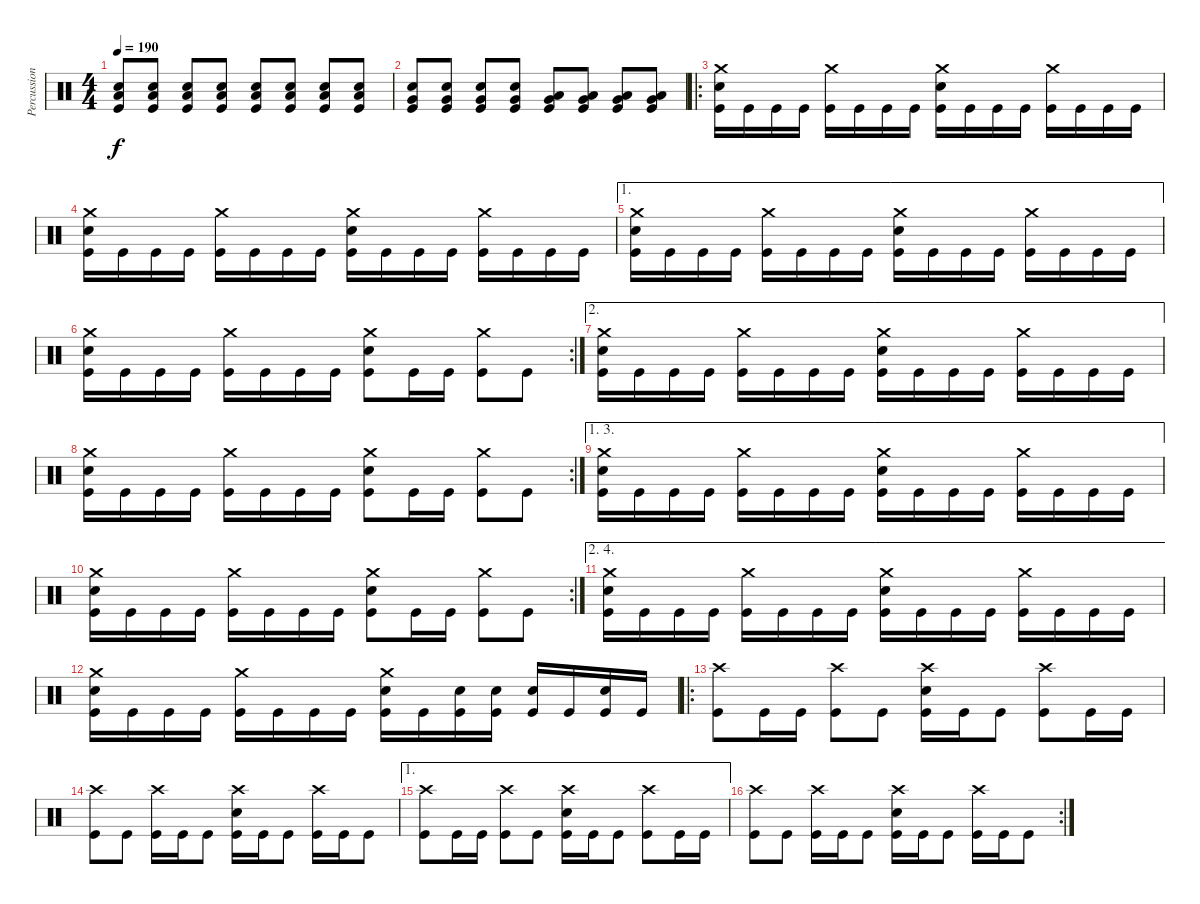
\track ("Percussion" "Percussion") {instrument percussion}
\staff {score}
\articulation defaults
\ts (4 4)
\tempo 190
\clef neutral
\ks c
("Low Tom (hit)" "Electric Snare (hit)" "Kick (hit)").8{dy f} ("Low Tom (hit)" "Electric Snare (hit)" "Kick (hit)").8 ("Low Tom (hit)" "Electric Snare (hit)" "Kick (hit)").8 ("Low Tom (hit)" "Electric Snare (hit)" "Kick (hit)").8 ("Low Tom (hit)" "Electric Snare (hit)" "Kick (hit)").8 ("Low Tom (hit)" "Electric Snare (hit)" "Kick (hit)").8 ("Low Tom (hit)" "Electric Snare (hit)" "Kick (hit)").8 ("Low Tom (hit)" "Electric Snare (hit)" "Kick (hit)").8 |
("Very Low Tom (hit)" "Electric Snare (hit)" "Kick (hit)").8 ("Very Low Tom (hit)" "Electric Snare (hit)" "Kick (hit)").8 ("Very Low Tom (hit)" "Electric Snare (hit)" "Kick (hit)").8 ("Very Low Tom (hit)" "Electric Snare (hit)" "Kick (hit)").8 ("Low Tom (hit)" "Very Low Tom (hit)" "Kick (hit)").8 ("Low Tom (hit)" "Very Low Tom (hit)" "Kick (hit)").8 ("Low Tom (hit)" "Very Low Tom (hit)" "Kick (hit)").8 ("Low Tom (hit)" "Very Low Tom (hit)" "Kick (hit)").8 |
\ro
("Crash medium (hit)" "Electric Snare (hit)" "Kick (hit)").16 "Kick (hit)".16 "Kick (hit)".16 "Kick (hit)".16 ("Crash medium (hit)" "Kick (hit)").16 "Kick (hit)".16 "Kick (hit)".16 "Kick (hit)".16 ("Crash medium (hit)" "Electric Snare (hit)" "Kick (hit)").16 "Kick (hit)".16 "Kick (hit)".16 "Kick (hit)".16 ("Crash medium (hit)" "Kick (hit)").16 "Kick (hit)".16 "Kick (hit)".16 "Kick (hit)".16 |
("Crash medium (hit)" "Electric Snare (hit)" "Kick (hit)").16 "Kick (hit)".16 "Kick (hit)".16 "Kick (hit)".16 ("Crash medium (hit)" "Kick (hit)").16 "Kick (hit)".16 "Kick (hit)".16 "Kick (hit)".16 ("Crash medium (hit)" "Electric Snare (hit)" "Kick (hit)").16 "Kick (hit)".16 "Kick (hit)".16 "Kick (hit)".16 ("Crash medium (hit)" "Kick (hit)").16 "Kick (hit)".16 "Kick (hit)".16 "Kick (hit)".16 |
\ae 1
("Crash medium (hit)" "Electric Snare (hit)" "Kick (hit)").16 "Kick (hit)".16 "Kick (hit)".16 "Kick (hit)".16 ("Crash medium (hit)" "Kick (hit)").16 "Kick (hit)".16 "Kick (hit)".16 "Kick (hit)".16 ("Crash medium (hit)" "Electric Snare (hit)" "Kick (hit)").16 "Kick (hit)".16 "Kick (hit)".16 "Kick (hit)".16 ("Crash medium (hit)" "Kick (hit)").16 "Kick (hit)".16 "Kick (hit)".16 "Kick (hit)".16 |
\rc 2
("Crash medium (hit)" "Electric Snare (hit)" "Kick (hit)").16 "Kick (hit)".16 "Kick (hit)".16 "Kick (hit)".16 ("Crash medium (hit)" "Kick (hit)").16 "Kick (hit)".16 "Kick (hit)".16 "Kick (hit)".16 ("Crash medium (hit)" "Electric Snare (hit)" "Kick (hit)").8 "Kick (hit)".16 "Kick (hit)".16 ("Crash medium (hit)" "Kick (hit)").8 "Kick (hit)".8 |
\ae 2
("Crash medium (hit)" "Electric Snare (hit)" "Kick (hit)").16 "Kick (hit)".16 "Kick (hit)".16 "Kick (hit)".16 ("Crash medium (hit)" "Kick (hit)").16 "Kick (hit)".16 "Kick (hit)".16 "Kick (hit)".16 ("Crash medium (hit)" "Electric Snare (hit)" "Kick (hit)").16 "Kick (hit)".16 "Kick (hit)".16 "Kick (hit)".16 ("Crash medium (hit)" "Kick (hit)").16 "Kick (hit)".16 "Kick (hit)".16 "Kick (hit)".16 |
\rc 2
("Crash medium (hit)" "Electric Snare (hit)" "Kick (hit)").16 "Kick (hit)".16 "Kick (hit)".16 "Kick (hit)".16 ("Crash medium (hit)" "Kick (hit)").16 "Kick (hit)".16 "Kick (hit)".16 "Kick (hit)".16 ("Crash medium (hit)" "Electric Snare (hit)" "Kick (hit)").8 "Kick (hit)".16 "Kick (hit)".16 ("Crash medium (hit)" "Kick (hit)").8 "Kick (hit)".8 |
\ae (1 3)
("Crash medium (hit)" "Electric Snare (hit)" "Kick (hit)").16 "Kick (hit)".16 "Kick (hit)".16 "Kick (hit)".16 ("Crash medium (hit)" "Kick (hit)").16 "Kick (hit)".16 "Kick (hit)".16 "Kick (hit)".16 ("Crash medium (hit)" "Electric Snare (hit)" "Kick (hit)").16 "Kick (hit)".16 "Kick (hit)".16 "Kick (hit)".16 ("Crash medium (hit)" "Kick (hit)").16 "Kick (hit)".16 "Kick (hit)".16 "Kick (hit)".16 |
\rc 2
("Crash medium (hit)" "Electric Snare (hit)" "Kick (hit)").16 "Kick (hit)".16 "Kick (hit)".16 "Kick (hit)".16 ("Crash medium (hit)" "Kick (hit)").16 "Kick (hit)".16 "Kick (hit)".16 "Kick (hit)".16 ("Crash medium (hit)" "Electric Snare (hit)" "Kick (hit)").8 "Kick (hit)".16 "Kick (hit)".16 ("Crash medium (hit)" "Kick (hit)").8 "Kick (hit)".8 |
\ae (2 4)
("Crash medium (hit)" "Electric Snare (hit)" "Kick (hit)").16 "Kick (hit)".16 "Kick (hit)".16 "Kick (hit)".16 ("Crash medium (hit)" "Kick (hit)").16 "Kick (hit)".16 "Kick (hit)".16 "Kick (hit)".16 ("Crash medium (hit)" "Electric Snare (hit)" "Kick (hit)").16 "Kick (hit)".16 "Kick (hit)".16 "Kick (hit)".16 ("Crash medium (hit)" "Kick (hit)").16 "Kick (hit)".16 "Kick (hit)".16 "Kick (hit)".16 |
("Crash medium (hit)" "Electric Snare (hit)" "Kick (hit)").16 "Kick (hit)".16 "Kick (hit)".16 "Kick (hit)".16 ("Crash medium (hit)" "Kick (hit)").16 "Kick (hit)".16 "Kick (hit)".16 "Kick (hit)".16 ("Crash medium (hit)" "Electric Snare (hit)" "Kick (hit)").16 "Kick (hit)".16 ("Electric Snare (hit)" "Kick (hit)").16 ("Electric Snare (hit)" "Kick (hit)").16 ("Electric Snare (hit)" "Kick (hit)").16 "Kick (hit)".16 ("Electric Snare (hit)" "Kick (hit)").16 "Kick (hit)".16 |
\ro
("Crash high (hit)" "Kick (hit)").8 "Kick (hit)".16 "Kick (hit)".16 ("Crash high (hit)" "Kick (hit)").8 "Kick (hit)".8 ("Crash high (hit)" "Electric Snare (hit)" "Kick (hit)").16 "Kick (hit)".16 "Kick (hit)".8 ("Crash high (hit)" "Kick (hit)").8 "Kick (hit)".16 "Kick (hit)".16 |
("Crash high (hit)" "Kick (hit)").8 "Kick (hit)".8 ("Crash high (hit)" "Kick (hit)").16 "Kick (hit)".16 "Kick (hit)".8 ("Crash high (hit)" "Electric Snare (hit)" "Kick (hit)").16 "Kick (hit)".16 "Kick (hit)".8 ("Crash high (hit)" "Kick (hit)").16 "Kick (hit)".16 "Kick (hit)".8 |
\ae 1
("Crash high (hit)" "Kick (hit)").8 "Kick (hit)".16 "Kick (hit)".16 ("Crash high (hit)" "Kick (hit)").8 "Kick (hit)".8 ("Crash high (hit)" "Electric Snare (hit)" "Kick (hit)").16 "Kick (hit)".16 "Kick (hit)".8 ("Crash high (hit)" "Kick (hit)").8 "Kick (hit)".16 "Kick (hit)".16 |
\rc 2
("Crash high (hit)" "Kick (hit)").8 "Kick (hit)".8 ("Crash high (hit)" "Kick (hit)").16 "Kick (hit)".16 "Kick (hit)".8 ("Crash high (hit)" "Electric Snare (hit)" "Kick (hit)").16 "Kick (hit)".16 "Kick (hit)".8 ("Crash high (hit)" "Kick (hit)").16 "Kick (hit)".16 "Kick (hit)".8
